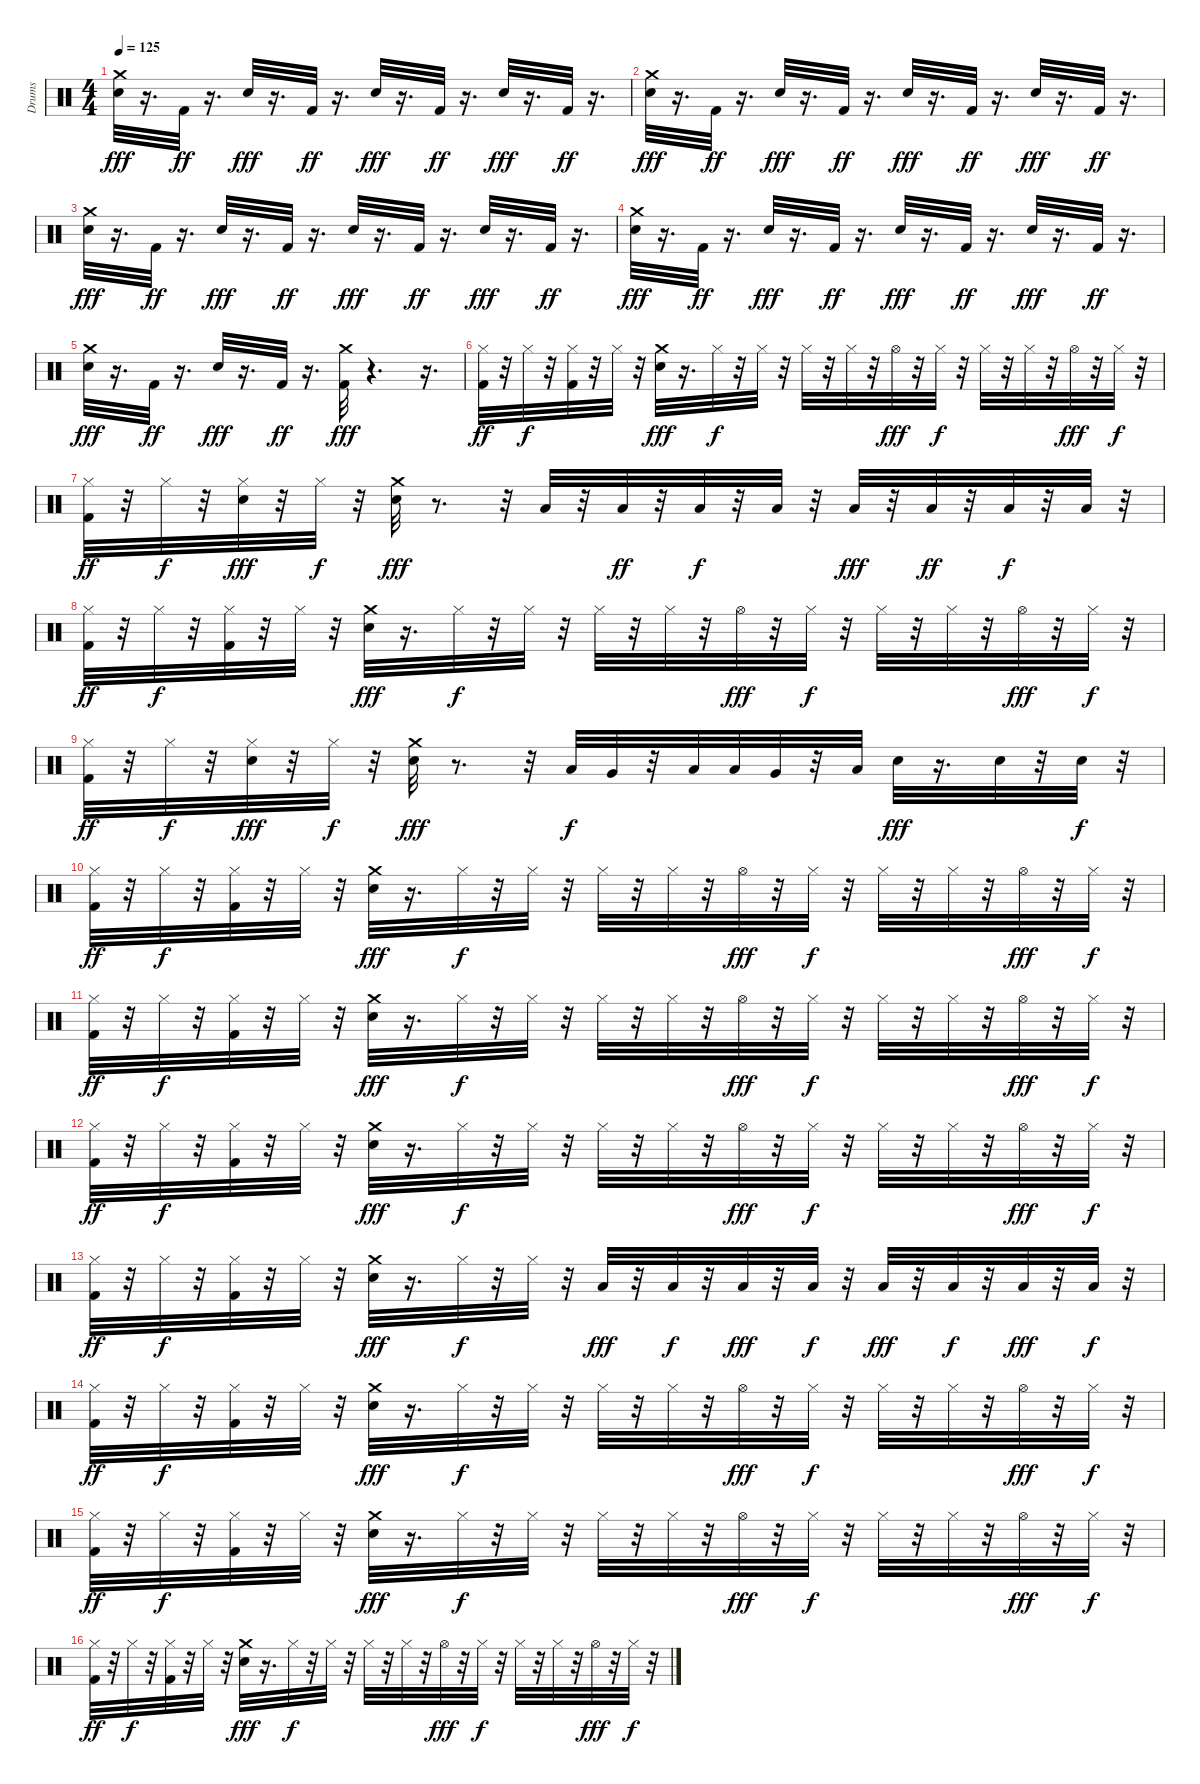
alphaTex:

\track ("Drums" "Drums") {instrument percussion}
\staff {score}
\articulation defaults
\ts (4 4)
\tempo 125
\clef neutral
\ks c
("Snare (hit) 2" "Crash medium (hit)").32{dy fff} r.16{d} "Kick (hit) 2".32{dy ff} r.16{d} "Snare (hit) 2".32{dy fff} r.16{d} "Kick (hit) 2".32{dy ff} r.16{d} "Snare (hit) 2".32{dy fff} r.16{d} "Kick (hit) 2".32{dy ff} r.16{d} "Snare (hit) 2".32{dy fff} r.16{d} "Kick (hit) 2".32{dy ff} r.16{d} |
("Snare (hit) 2" "Crash medium (hit)").32{dy fff} r.16{d} "Kick (hit) 2".32{dy ff} r.16{d} "Snare (hit) 2".32{dy fff} r.16{d} "Kick (hit) 2".32{dy ff} r.16{d} "Snare (hit) 2".32{dy fff} r.16{d} "Kick (hit) 2".32{dy ff} r.16{d} "Snare (hit) 2".32{dy fff} r.16{d} "Kick (hit) 2".32{dy ff} r.16{d} |
("Snare (hit) 2" "Crash medium (hit)").32{dy fff} r.16{d} "Kick (hit) 2".32{dy ff} r.16{d} "Snare (hit) 2".32{dy fff} r.16{d} "Kick (hit) 2".32{dy ff} r.16{d} "Snare (hit) 2".32{dy fff} r.16{d} "Kick (hit) 2".32{dy ff} r.16{d} "Snare (hit) 2".32{dy fff} r.16{d} "Kick (hit) 2".32{dy ff} r.16{d} |
("Snare (hit) 2" "Crash medium (hit)").32{dy fff} r.16{d} "Kick (hit) 2".32{dy ff} r.16{d} "Snare (hit) 2".32{dy fff} r.16{d} "Kick (hit) 2".32{dy ff} r.16{d} "Snare (hit) 2".32{dy fff} r.16{d} "Kick (hit) 2".32{dy ff} r.16{d} "Snare (hit) 2".32{dy fff} r.16{d} "Kick (hit) 2".32{dy ff} r.16{d} |
("Snare (hit) 2" "Crash medium (hit)").32{dy fff} r.16{d} "Kick (hit) 2".32{dy ff} r.16{d} "Snare (hit) 2".32{dy fff} r.16{d} "Kick (hit) 2".32{dy ff} r.16{d} ("Kick (hit) 2" "Crash medium (hit)").32{dy fff} r.4{d} r.16{d} |
("Hi-Hat (closed)" "Kick (hit) 2").32{dy ff} r.32 "Hi-Hat (closed)".32{dy f} r.32 ("Kick (hit) 2" "Hi-Hat (closed)").32 r.32 "Hi-Hat (closed)".32 r.32 ("Crash medium (hit)" "Snare (hit) 2").32{dy fff} r.16{d} "Hi-Hat (closed)".32{dy f} r.32 "Hi-Hat (closed)".32 r.32 "Hi-Hat (closed)".32 r.32 "Hi-Hat (closed)".32 r.32 "Hi-Hat (open)".32{dy fff} r.32 "Hi-Hat (closed)".32{dy f} r.32 "Hi-Hat (closed)".32 r.32 "Hi-Hat (closed)".32 r.32 "Hi-Hat (open)".32{dy fff} r.32 "Hi-Hat (closed)".32{dy f} r.32 |
("Hi-Hat (closed)" "Kick (hit) 2").32{dy ff} r.32 "Hi-Hat (closed)".32{dy f} r.32 ("Hi-Hat (closed)" "Snare (hit) 2").32{dy fff} r.32 "Hi-Hat (closed)".32{dy f} r.32 ("Snare (hit) 2" "Crash medium (hit)").32{dy fff} r.8{d} r.32 "Low Tom (hit)".32 r.32 "Low Tom (hit)".32{dy ff} r.32 "Low Tom (hit)".32{dy f} r.32 "Low Tom (hit)".32 r.32 "Low Floor Tom (hit)".32{dy fff} r.32 "Low Floor Tom (hit)".32{dy ff} r.32 "Low Floor Tom (hit)".32{dy f} r.32 "Low Floor Tom (hit)".32 r.32 |
("Hi-Hat (closed)" "Kick (hit) 2").32{dy ff} r.32 "Hi-Hat (closed)".32{dy f} r.32 ("Kick (hit) 2" "Hi-Hat (closed)").32 r.32 "Hi-Hat (closed)".32 r.32 ("Crash medium (hit)" "Snare (hit) 2").32{dy fff} r.16{d} "Hi-Hat (closed)".32{dy f} r.32 "Hi-Hat (closed)".32 r.32 "Hi-Hat (closed)".32 r.32 "Hi-Hat (closed)".32 r.32 "Hi-Hat (open)".32{dy fff} r.32 "Hi-Hat (closed)".32{dy f} r.32 "Hi-Hat (closed)".32 r.32 "Hi-Hat (closed)".32 r.32 "Hi-Hat (open)".32{dy fff} r.32 "Hi-Hat (closed)".32{dy f} r.32 |
("Hi-Hat (closed)" "Kick (hit) 2").32{dy ff} r.32 "Hi-Hat (closed)".32{dy f} r.32 ("Hi-Hat (closed)" "Snare (hit) 2").32{dy fff} r.32 "Hi-Hat (closed)".32{dy f} r.32 ("Snare (hit) 2" "Crash medium (hit)").32{dy fff} r.8{d} r.32 "Low Tom (hit)".32{dy f} "Very Low Tom (hit)".32{volume 12} r.32 "Low Floor Tom (hit)".32{volume 13} "Low Tom (hit)".32{volume 14} "Very Low Tom (hit)".32{volume 14} r.32 "Low Floor Tom (hit)".32{volume 15} "Snare (hit) 2".32{dy fff volume 16} r.16{d} "Snare (hit) 2".32 r.32 "Snare (hit) 2".32{dy f} r.32 |
("Hi-Hat (closed)" "Kick (hit) 2").32{dy ff} r.32 "Hi-Hat (closed)".32{dy f} r.32 ("Kick (hit) 2" "Hi-Hat (closed)").32 r.32 "Hi-Hat (closed)".32 r.32 ("Crash medium (hit)" "Snare (hit) 2").32{dy fff} r.16{d} "Hi-Hat (closed)".32{dy f} r.32 "Hi-Hat (closed)".32 r.32 "Hi-Hat (closed)".32 r.32 "Hi-Hat (closed)".32 r.32 "Hi-Hat (open)".32{dy fff} r.32 "Hi-Hat (closed)".32{dy f} r.32 "Hi-Hat (closed)".32 r.32 "Hi-Hat (closed)".32 r.32 "Hi-Hat (open)".32{dy fff} r.32 "Hi-Hat (closed)".32{dy f} r.32 |
("Hi-Hat (closed)" "Kick (hit) 2").32{dy ff} r.32 "Hi-Hat (closed)".32{dy f} r.32 ("Kick (hit) 2" "Hi-Hat (closed)").32 r.32 "Hi-Hat (closed)".32 r.32 ("Crash medium (hit)" "Snare (hit) 2").32{dy fff} r.16{d} "Hi-Hat (closed)".32{dy f} r.32 "Hi-Hat (closed)".32 r.32 "Hi-Hat (closed)".32 r.32 "Hi-Hat (closed)".32 r.32 "Hi-Hat (open)".32{dy fff} r.32 "Hi-Hat (closed)".32{dy f} r.32 "Hi-Hat (closed)".32 r.32 "Hi-Hat (closed)".32 r.32 "Hi-Hat (open)".32{dy fff} r.32 "Hi-Hat (closed)".32{dy f} r.32 |
("Hi-Hat (closed)" "Kick (hit) 2").32{dy ff} r.32 "Hi-Hat (closed)".32{dy f} r.32 ("Kick (hit) 2" "Hi-Hat (closed)").32 r.32 "Hi-Hat (closed)".32 r.32 ("Crash medium (hit)" "Snare (hit) 2").32{dy fff} r.16{d} "Hi-Hat (closed)".32{dy f} r.32 "Hi-Hat (closed)".32 r.32 "Hi-Hat (closed)".32 r.32 "Hi-Hat (closed)".32 r.32 "Hi-Hat (open)".32{dy fff} r.32 "Hi-Hat (closed)".32{dy f} r.32 "Hi-Hat (closed)".32 r.32 "Hi-Hat (closed)".32 r.32 "Hi-Hat (open)".32{dy fff} r.32 "Hi-Hat (closed)".32{dy f} r.32 |
("Hi-Hat (closed)" "Kick (hit) 2").32{dy ff} r.32 "Hi-Hat (closed)".32{dy f} r.32 ("Kick (hit) 2" "Hi-Hat (closed)").32 r.32 "Hi-Hat (closed)".32 r.32 ("Crash medium (hit)" "Snare (hit) 2").32{dy fff} r.16{d} "Hi-Hat (closed)".32{dy f} r.32 "Hi-Hat (closed)".32 r.32 "Low Tom (hit)".32{dy fff} r.32 "Low Tom (hit)".32{dy f} r.32 "Low Floor Tom (hit)".32{dy fff} r.32 "Low Floor Tom (hit)".32{dy f} r.32 "Low Tom (hit)".32{dy fff} r.32 "Low Tom (hit)".32{dy f} r.32 "Low Floor Tom (hit)".32{dy fff} r.32 "Low Floor Tom (hit)".32{dy f} r.32 |
("Hi-Hat (closed)" "Kick (hit) 2").32{dy ff} r.32 "Hi-Hat (closed)".32{dy f} r.32 ("Kick (hit) 2" "Hi-Hat (closed)").32 r.32 "Hi-Hat (closed)".32 r.32 ("Crash medium (hit)" "Snare (hit) 2").32{dy fff} r.16{d} "Hi-Hat (closed)".32{dy f} r.32 "Hi-Hat (closed)".32 r.32 "Hi-Hat (closed)".32 r.32 "Hi-Hat (closed)".32 r.32 "Hi-Hat (open)".32{dy fff} r.32 "Hi-Hat (closed)".32{dy f} r.32 "Hi-Hat (closed)".32 r.32 "Hi-Hat (closed)".32 r.32 "Hi-Hat (open)".32{dy fff} r.32 "Hi-Hat (closed)".32{dy f} r.32 |
("Hi-Hat (closed)" "Kick (hit) 2").32{dy ff} r.32 "Hi-Hat (closed)".32{dy f} r.32 ("Kick (hit) 2" "Hi-Hat (closed)").32 r.32 "Hi-Hat (closed)".32 r.32 ("Crash medium (hit)" "Snare (hit) 2").32{dy fff} r.16{d} "Hi-Hat (closed)".32{dy f} r.32 "Hi-Hat (closed)".32 r.32 "Hi-Hat (closed)".32 r.32 "Hi-Hat (closed)".32 r.32 "Hi-Hat (open)".32{dy fff} r.32 "Hi-Hat (closed)".32{dy f} r.32 "Hi-Hat (closed)".32 r.32 "Hi-Hat (closed)".32 r.32 "Hi-Hat (open)".32{dy fff} r.32 "Hi-Hat (closed)".32{dy f} r.32 |
("Hi-Hat (closed)" "Kick (hit) 2").32{dy ff} r.32 "Hi-Hat (closed)".32{dy f} r.32 ("Kick (hit) 2" "Hi-Hat (closed)").32 r.32 "Hi-Hat (closed)".32 r.32 ("Crash medium (hit)" "Snare (hit) 2").32{dy fff} r.16{d} "Hi-Hat (closed)".32{dy f} r.32 "Hi-Hat (closed)".32 r.32 "Hi-Hat (closed)".32 r.32 "Hi-Hat (closed)".32 r.32 "Hi-Hat (open)".32{dy fff} r.32 "Hi-Hat (closed)".32{dy f} r.32 "Hi-Hat (closed)".32 r.32 "Hi-Hat (closed)".32 r.32 "Hi-Hat (open)".32{dy fff} r.32 "Hi-Hat (closed)".32{dy f} r.32
